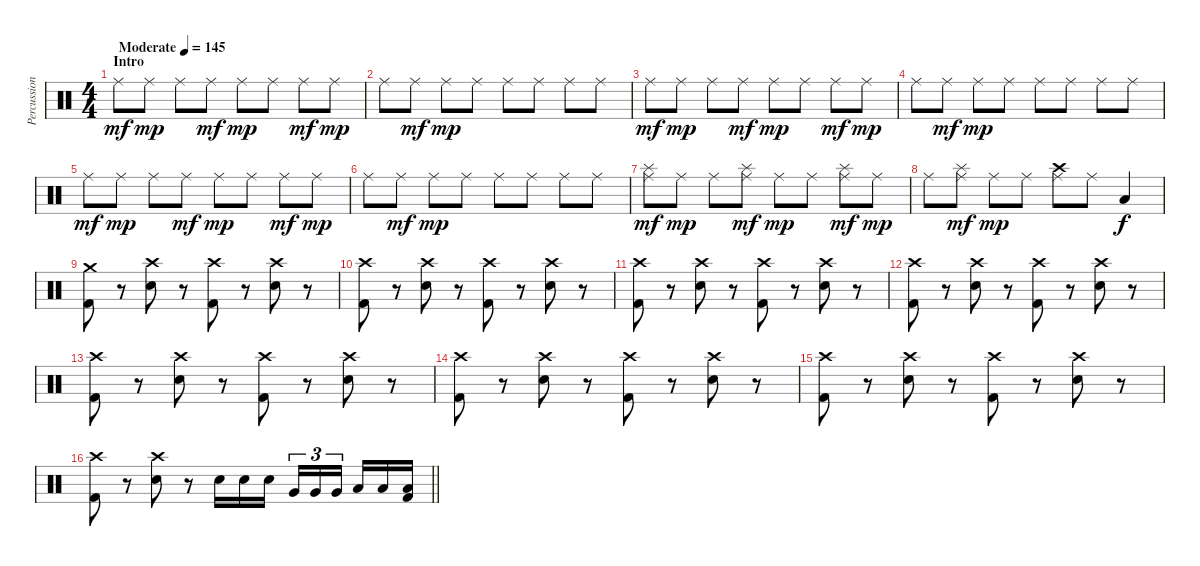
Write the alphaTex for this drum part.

\track ("Percussion" "Percussion") {instrument percussion}
\staff {score}
\articulation defaults
\ts (4 4)
\section ("" "Intro")
\tempo (145 "Moderate")
\clef neutral
\ks c "Ride (middle)".8{dy mf} "Ride (middle)".8{dy mp} "Ride (middle)".8 "Ride (middle)".8{dy mf} "Ride (middle)".8{dy mp} "Ride (middle)".8 "Ride (middle)".8{dy mf} "Ride (middle)".8{dy mp}
|
"Ride (middle)".8 "Ride (middle)".8{dy mf} "Ride (middle)".8{dy mp} "Ride (middle)".8 "Ride (middle)".8 "Ride (middle)".8 "Ride (middle)".8 "Ride (middle)".8 |
"Ride (middle)".8{dy mf} "Ride (middle)".8{dy mp} "Ride (middle)".8 "Ride (middle)".8{dy mf} "Ride (middle)".8{dy mp} "Ride (middle)".8 "Ride (middle)".8{dy mf} "Ride (middle)".8{dy mp} |
"Ride (middle)".8 "Ride (middle)".8{dy mf} "Ride (middle)".8{dy mp} "Ride (middle)".8 "Ride (middle)".8 "Ride (middle)".8 "Ride (middle)".8 "Ride (middle)".8 |
"Ride (middle)".8{dy mf} "Ride (middle)".8{dy mp} "Ride (middle)".8 "Ride (middle)".8{dy mf} "Ride (middle)".8{dy mp} "Ride (middle)".8 "Ride (middle)".8{dy mf} "Ride (middle)".8{dy mp} |
"Ride (middle)".8 "Ride (middle)".8{dy mf} "Ride (middle)".8{dy mp} "Ride (middle)".8 "Ride (middle)".8 "Ride (middle)".8 "Ride (middle)".8 "Ride (middle)".8 |
("Splash (hit)" "Ride (middle)").8{dy mf} "Ride (middle)".8{dy mp} "Ride (middle)".8 ("Splash (hit)" "Ride (middle)").8{dy mf} "Ride (middle)".8{dy mp} "Ride (middle)".8 ("Splash (hit)" "Ride (middle)").8{dy mf} "Ride (middle)".8{dy mp} |
"Ride (middle)".8 ("Splash (hit)" "Ride (middle)").8{dy mf} "Ride (middle)".8{dy mp} "Ride (middle)".8 ("Crash high (hit)" "Ride (middle)").8 "Ride (middle)".8 "Low Floor Tom (hit)".4{dy f} |
("Crash medium (hit)" "Kick (hit) 2").8 r.8 ("Crash high (hit)" "Snare (hit) 2").8 r.8 ("Crash high (hit)" "Kick (hit) 2").8 r.8 ("Crash high (hit)" "Snare (hit) 2").8 r.8 |
("Crash high (hit)" "Kick (hit) 2").8 r.8 ("Crash high (hit)" "Snare (hit) 2").8 r.8 ("Crash high (hit)" "Kick (hit) 2").8 r.8 ("Crash high (hit)" "Snare (hit) 2").8 r.8 |
("Crash high (hit)" "Kick (hit) 2").8 r.8 ("Crash high (hit)" "Snare (hit) 2").8 r.8 ("Crash high (hit)" "Kick (hit) 2").8 r.8 ("Crash high (hit)" "Snare (hit) 2").8 r.8 |
("Crash high (hit)" "Kick (hit) 2").8 r.8 ("Crash high (hit)" "Snare (hit) 2").8 r.8 ("Crash high (hit)" "Kick (hit) 2").8 r.8 ("Crash high (hit)" "Snare (hit) 2").8 r.8 |
("Crash high (hit)" "Kick (hit) 2").8 r.8 ("Crash high (hit)" "Snare (hit) 2").8 r.8 ("Crash high (hit)" "Kick (hit) 2").8 r.8 ("Crash high (hit)" "Snare (hit) 2").8 r.8 |
("Crash high (hit)" "Kick (hit) 2").8 r.8 ("Crash high (hit)" "Snare (hit) 2").8 r.8 ("Crash high (hit)" "Kick (hit) 2").8 r.8 ("Crash high (hit)" "Snare (hit) 2").8 r.8 |
("Crash high (hit)" "Kick (hit) 2").8 r.8 ("Crash high (hit)" "Snare (hit) 2").8 r.8 ("Crash high (hit)" "Kick (hit) 2").8 r.8 ("Crash high (hit)" "Snare (hit) 2").8 r.8 |
\barLineRight lightlight
("Crash high (hit)" "Kick (hit) 2").8 r.8 ("Crash high (hit)" "Snare (hit) 2").8 r.8 "Snare (hit) 2".16 "Snare (hit) 2".16 "Snare (hit) 2".16{beam splitsecondary} "Very Low Tom (hit)".16{tu (3 2)} "Very Low Tom (hit)".16{tu (3 2)} "Very Low Tom (hit)".16{tu (3 2) beam splitsecondary} "Low Floor Tom (hit)".16 "Low Floor Tom (hit)".16 ("Low Floor Tom (hit)" "Kick (hit) 2").16
